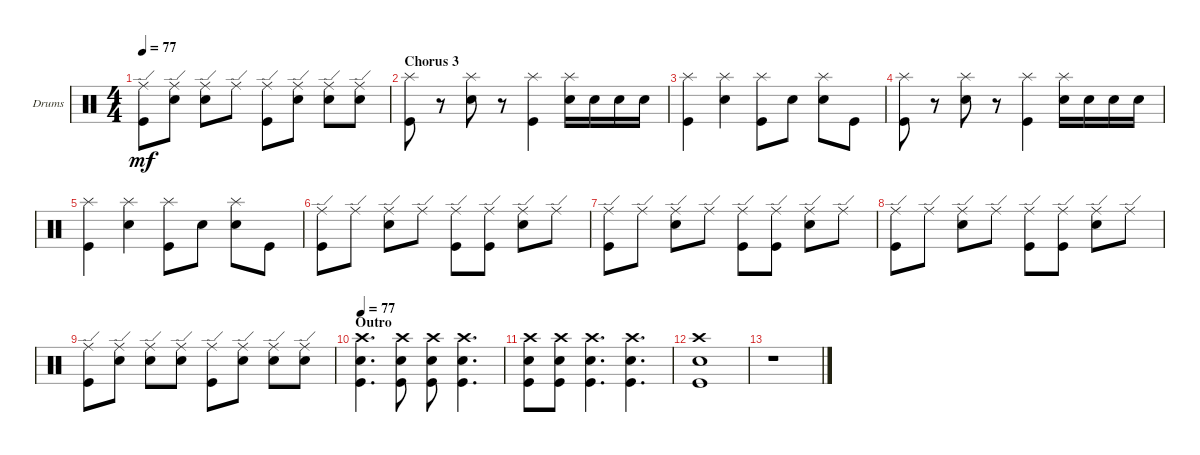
\defaultSystemsLayout 4
\bracketExtendMode groupsimilarinstruments
\firstSystemTrackNameOrientation horizontal
\otherSystemsTrackNameOrientation horizontal
\track ("Drumkit" "Drums") {instrument percussion}
\staff {score}
\articulation defaults
\ts (4 4)
\tempo 77
\clef neutral
\ks c
("Ride (edge)" "Kick (hit)").8{dy mf} ("Ride (edge)" "Snare (hit) 2").8 ("Snare (hit) 2" "Ride (edge)").8 "Ride (edge)".8 ("Kick (hit)" "Ride (edge)").8 ("Ride (edge)" "Snare (hit) 2").8 ("Snare (hit) 2" "Ride (edge)").8 ("Ride (edge)" "Snare (hit) 2").8 |
\section ("" "Chorus 3")
("Kick (hit)" "Splash (hit)").8 r.8 ("Splash (hit)" "Snare (hit) 2").8 r.8 ("Splash (hit)" "Kick (hit)").4 ("Splash (hit)" "Snare (hit) 2").16 "Snare (hit) 2".16 "Snare (hit) 2".16 "Snare (hit) 2".16 |
("Kick (hit)" "Splash (hit)").4 ("Snare (hit) 2" "Splash (hit)").4 ("Kick (hit)" "Splash (hit)").8 "Snare (hit) 2".8 ("Snare (hit) 2" "Splash (hit)").8 "Kick (hit)".8 |
("Kick (hit)" "Splash (hit)").8 r.8 ("Splash (hit)" "Snare (hit) 2").8 r.8 ("Splash (hit)" "Kick (hit)").4 ("Splash (hit)" "Snare (hit) 2").16 "Snare (hit) 2".16 "Snare (hit) 2".16 "Snare (hit) 2".16 |
("Kick (hit)" "Splash (hit)").4 ("Snare (hit) 2" "Splash (hit)").4 ("Kick (hit)" "Splash (hit)").8 "Snare (hit) 2".8 ("Snare (hit) 2" "Splash (hit)").8 "Kick (hit)".8 |
("Ride (edge)" "Kick (hit)").8 "Ride (edge)".8 ("Snare (hit) 2" "Ride (edge)").8 "Ride (edge)".8 ("Kick (hit)" "Ride (edge)").8 ("Kick (hit)" "Ride (edge)").8 ("Snare (hit) 2" "Ride (edge)").8 "Ride (edge)".8 |
("Ride (edge)" "Kick (hit)").8 "Ride (edge)".8 ("Snare (hit) 2" "Ride (edge)").8 "Ride (edge)".8 ("Kick (hit)" "Ride (edge)").8 ("Kick (hit)" "Ride (edge)").8 ("Snare (hit) 2" "Ride (edge)").8 "Ride (edge)".8 |
("Ride (edge)" "Kick (hit)").8 "Ride (edge)".8 ("Snare (hit) 2" "Ride (edge)").8 "Ride (edge)".8 ("Kick (hit)" "Ride (edge)").8 ("Kick (hit)" "Ride (edge)").8 ("Snare (hit) 2" "Ride (edge)").8 "Ride (edge)".8 |
("Ride (edge)" "Kick (hit)").8 ("Ride (edge)" "Snare (hit) 2").8 ("Snare (hit) 2" "Ride (edge)").8 ("Ride (edge)" "Snare (hit) 2").8 ("Kick (hit)" "Ride (edge)").8 ("Ride (edge)" "Snare (hit) 2").8 ("Snare (hit) 2" "Ride (edge)").8 ("Ride (edge)" "Snare (hit) 2").8 |
\section ("" "Outro")
\tempo 77
("Crash high (hit)" "Kick (hit)" "Snare (hit) 2").4{d} ("Crash high (hit)" "Snare (hit) 2" "Kick (hit)").8 ("Crash high (hit)" "Snare (hit) 2" "Kick (hit)").8 ("Crash high (hit)" "Snare (hit) 2" "Kick (hit)").4{d} |
("Crash high (hit)" "Snare (hit) 2" "Kick (hit)").8 ("Crash high (hit)" "Snare (hit) 2" "Kick (hit)").8 ("Crash high (hit)" "Snare (hit) 2" "Kick (hit)").4{d} ("Crash high (hit)" "Snare (hit) 2" "Kick (hit)").4{d} |
("Crash high (hit)" "Snare (hit) 2" "Kick (hit)").1 |
r.1
